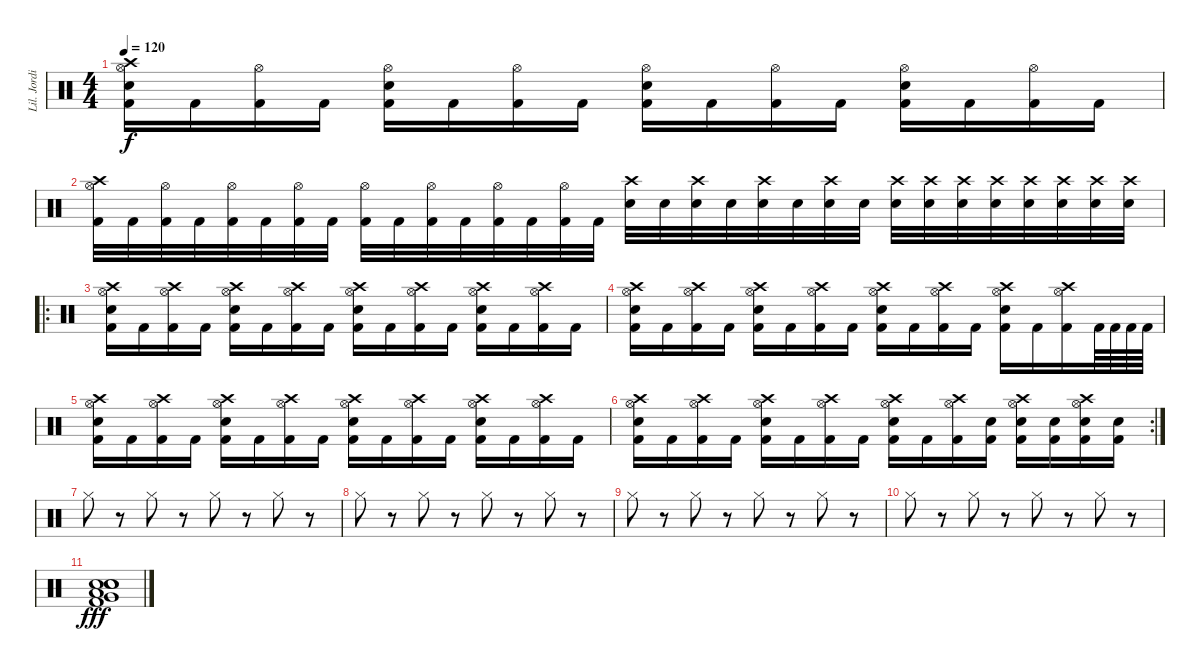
\track ("Lil. Jordison" "Lil. Jordi") {instrument percussion}
\staff {score}
\articulation defaults
\ts (4 4)
\tempo 120
\clef neutral
\ks c
("Hi-Hat (open)" "Crash high (hit)" "Electric Snare (hit)" "Kick (hit) 2").16{dy f} "Kick (hit) 2".16 ("Hi-Hat (open)" "Kick (hit) 2").16 "Kick (hit) 2".16 ("Hi-Hat (open)" "Electric Snare (hit)" "Kick (hit) 2").16 "Kick (hit) 2".16 ("Hi-Hat (open)" "Kick (hit) 2").16 "Kick (hit) 2".16 ("Hi-Hat (open)" "Electric Snare (hit)" "Kick (hit) 2").16 "Kick (hit) 2".16 ("Hi-Hat (open)" "Kick (hit) 2").16 "Kick (hit) 2".16 ("Hi-Hat (open)" "Electric Snare (hit)" "Kick (hit) 2").16 "Kick (hit) 2".16 ("Hi-Hat (open)" "Kick (hit) 2").16 "Kick (hit) 2".16 |
("Hi-Hat (open)" "Crash high (hit)" "Kick (hit) 2").32 "Kick (hit) 2".32 ("Hi-Hat (open)" "Kick (hit) 2").32 "Kick (hit) 2".32 ("Hi-Hat (open)" "Kick (hit) 2").32 "Kick (hit) 2".32 ("Hi-Hat (open)" "Kick (hit) 2").32 "Kick (hit) 2".32 ("Hi-Hat (open)" "Kick (hit) 2").32 "Kick (hit) 2".32 ("Hi-Hat (open)" "Kick (hit) 2").32 "Kick (hit) 2".32 ("Hi-Hat (open)" "Kick (hit) 2").32 "Kick (hit) 2".32 ("Hi-Hat (open)" "Kick (hit) 2").32 "Kick (hit) 2".32 ("Crash high (hit)" "Electric Snare (hit)").32 "Electric Snare (hit)".32 ("Crash high (hit)" "Electric Snare (hit)").32 "Electric Snare (hit)".32 ("Crash high (hit)" "Electric Snare (hit)").32 "Electric Snare (hit)".32 ("Crash high (hit)" "Electric Snare (hit)").32 "Electric Snare (hit)".32 ("Crash high (hit)" "Electric Snare (hit)").32 ("Crash high (hit)" "Electric Snare (hit)").32 ("Crash high (hit)" "Electric Snare (hit)").32 ("Crash high (hit)" "Electric Snare (hit)").32 ("Crash high (hit)" "Electric Snare (hit)").32 ("Crash high (hit)" "Electric Snare (hit)").32 ("Crash high (hit)" "Electric Snare (hit)").32 ("Crash high (hit)" "Electric Snare (hit)").32 |
\ro
("Hi-Hat (open)" "Crash high (hit)" "Electric Snare (hit)" "Kick (hit) 2").16 "Kick (hit) 2".16 ("Hi-Hat (open)" "Crash high (hit)" "Kick (hit) 2").16 "Kick (hit) 2".16 ("Hi-Hat (open)" "Crash high (hit)" "Electric Snare (hit)" "Kick (hit) 2").16 "Kick (hit) 2".16 ("Hi-Hat (open)" "Crash high (hit)" "Kick (hit) 2").16 "Kick (hit) 2".16 ("Hi-Hat (open)" "Crash high (hit)" "Electric Snare (hit)" "Kick (hit) 2").16 "Kick (hit) 2".16 ("Hi-Hat (open)" "Crash high (hit)" "Kick (hit) 2").16 "Kick (hit) 2".16 ("Hi-Hat (open)" "Crash high (hit)" "Electric Snare (hit)" "Kick (hit) 2").16 "Kick (hit) 2".16 ("Hi-Hat (open)" "Crash high (hit)" "Kick (hit) 2").16 "Kick (hit) 2".16 |
("Hi-Hat (open)" "Crash high (hit)" "Electric Snare (hit)" "Kick (hit) 2").16 "Kick (hit) 2".16 ("Hi-Hat (open)" "Crash high (hit)" "Kick (hit) 2").16 "Kick (hit) 2".16 ("Hi-Hat (open)" "Crash high (hit)" "Electric Snare (hit)" "Kick (hit) 2").16 "Kick (hit) 2".16 ("Hi-Hat (open)" "Crash high (hit)" "Kick (hit) 2").16 "Kick (hit) 2".16 ("Hi-Hat (open)" "Crash high (hit)" "Electric Snare (hit)" "Kick (hit) 2").16 "Kick (hit) 2".16 ("Hi-Hat (open)" "Crash high (hit)" "Kick (hit) 2").16 "Kick (hit) 2".16 ("Hi-Hat (open)" "Crash high (hit)" "Electric Snare (hit)" "Kick (hit) 2").16 "Kick (hit) 2".16 ("Hi-Hat (open)" "Crash high (hit)" "Kick (hit) 2").16 "Kick (hit) 2".64 "Kick (hit) 2".64 "Kick (hit) 2".64 "Kick (hit) 2".64 |
("Hi-Hat (open)" "Crash high (hit)" "Electric Snare (hit)" "Kick (hit) 2").16 "Kick (hit) 2".16 ("Hi-Hat (open)" "Crash high (hit)" "Kick (hit) 2").16 "Kick (hit) 2".16 ("Hi-Hat (open)" "Crash high (hit)" "Electric Snare (hit)" "Kick (hit) 2").16 "Kick (hit) 2".16 ("Hi-Hat (open)" "Crash high (hit)" "Kick (hit) 2").16 "Kick (hit) 2".16 ("Hi-Hat (open)" "Crash high (hit)" "Electric Snare (hit)" "Kick (hit) 2").16 "Kick (hit) 2".16 ("Hi-Hat (open)" "Crash high (hit)" "Kick (hit) 2").16 "Kick (hit) 2".16 ("Hi-Hat (open)" "Crash high (hit)" "Electric Snare (hit)" "Kick (hit) 2").16 "Kick (hit) 2".16 ("Hi-Hat (open)" "Crash high (hit)" "Kick (hit) 2").16 "Kick (hit) 2".16 |
\rc 2
("Hi-Hat (open)" "Crash high (hit)" "Electric Snare (hit)" "Kick (hit) 2").16 "Kick (hit) 2".16 ("Hi-Hat (open)" "Crash high (hit)" "Kick (hit) 2").16 "Kick (hit) 2".16 ("Hi-Hat (open)" "Crash high (hit)" "Electric Snare (hit)" "Kick (hit) 2").16 "Kick (hit) 2".16 ("Hi-Hat (open)" "Crash high (hit)" "Kick (hit) 2").16 "Kick (hit) 2".16 ("Hi-Hat (open)" "Crash high (hit)" "Electric Snare (hit)" "Kick (hit) 2").16 "Kick (hit) 2".16 ("Hi-Hat (open)" "Crash high (hit)" "Kick (hit) 2").16 ("Electric Snare (hit)" "Kick (hit) 2").16 ("Hi-Hat (open)" "Crash high (hit)" "Electric Snare (hit)" "Kick (hit) 2").16 ("Electric Snare (hit)" "Kick (hit) 2").16 ("Hi-Hat (open)" "Crash high (hit)" "Electric Snare (hit)" "Kick (hit) 2").16 ("Electric Snare (hit)" "Kick (hit) 2").16 |
"Hi-Hat (closed)".8 r.8 "Hi-Hat (closed)".8 r.8 "Hi-Hat (closed)".8 r.8 "Hi-Hat (closed)".8 r.8 |
"Hi-Hat (closed)".8 r.8 "Hi-Hat (closed)".8 r.8 "Hi-Hat (closed)".8 r.8 "Hi-Hat (closed)".8 r.8 |
"Hi-Hat (closed)".8 r.8 "Hi-Hat (closed)".8 r.8 "Hi-Hat (closed)".8 r.8 "Hi-Hat (closed)".8 r.8 |
"Hi-Hat (closed)".8 r.8 "Hi-Hat (closed)".8 r.8 "Hi-Hat (closed)".8 r.8 "Hi-Hat (closed)".8 r.8 |
("Kick (hit) 2" "Electric Snare (hit)" "Electric Snare (hit)" "Low Tom (hit)" "Very Low Tom (hit)" "Electric Snare (hit)").1{dy fff}
